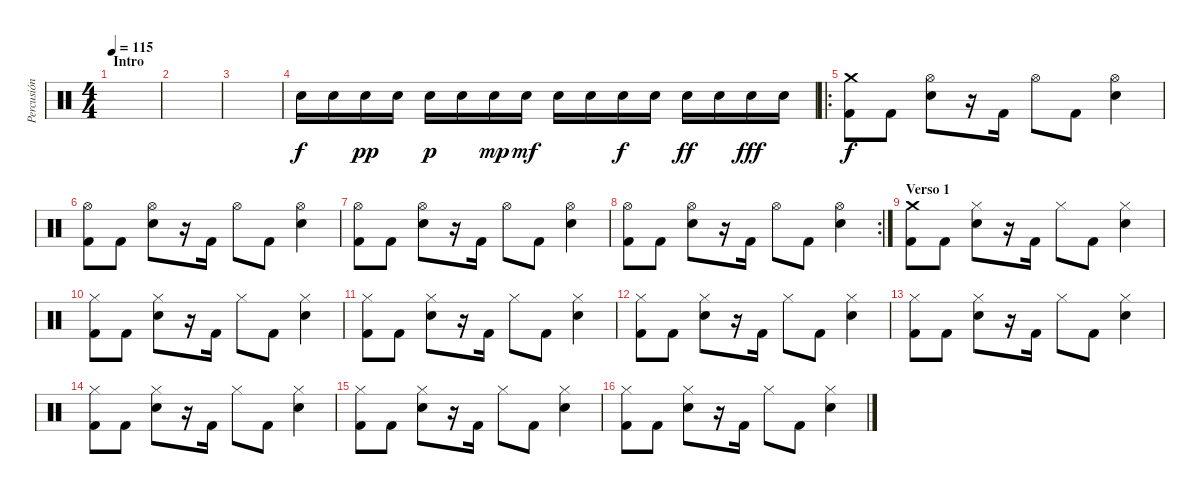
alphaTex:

\track ("Percusión" "Percusión") {instrument percussion}
\staff {score}
\articulation defaults
\ts (4 4)
\section ("" "Intro")
\tempo 115
\clef neutral
\ks c
|
|
|
"Electric Snare (hit)".16 "Electric Snare (hit)".16 "Electric Snare (hit)".16{dy pp} "Electric Snare (hit)".16 "Electric Snare (hit)".16{dy p} "Electric Snare (hit)".16 "Electric Snare (hit)".16{dy mp} "Electric Snare (hit)".16{dy mf} "Electric Snare (hit)".16 "Electric Snare (hit)".16 "Electric Snare (hit)".16{dy f} "Electric Snare (hit)".16 "Electric Snare (hit)".16{dy ff} "Electric Snare (hit)".16 "Electric Snare (hit)".16{dy fff} "Electric Snare (hit)".16 |
\ro
("Kick (hit) 2" "Crash medium (hit)").8{dy f} "Kick (hit) 2".8 ("Electric Snare (hit)" "Hi-Hat (open)").8 r.16 "Kick (hit) 2".16 "Hi-Hat (open)".8 "Kick (hit) 2".8 ("Electric Snare (hit)" "Hi-Hat (open)").4 |
("Kick (hit) 2" "Hi-Hat (open)").8 "Kick (hit) 2".8 ("Electric Snare (hit)" "Hi-Hat (open)").8 r.16 "Kick (hit) 2".16 "Hi-Hat (open)".8 "Kick (hit) 2".8 ("Electric Snare (hit)" "Hi-Hat (open)").4 |
("Kick (hit) 2" "Hi-Hat (open)").8 "Kick (hit) 2".8 ("Electric Snare (hit)" "Hi-Hat (open)").8 r.16 "Kick (hit) 2".16 "Hi-Hat (open)".8 "Kick (hit) 2".8 ("Electric Snare (hit)" "Hi-Hat (open)").4 |
\rc 2
("Kick (hit) 2" "Hi-Hat (open)").8 "Kick (hit) 2".8 ("Electric Snare (hit)" "Hi-Hat (open)").8 r.16 "Kick (hit) 2".16 "Hi-Hat (open)".8 "Kick (hit) 2".8 ("Electric Snare (hit)" "Hi-Hat (open)").4 |
\section ("" "Verso 1")
("Kick (hit) 2" "Crash medium (hit)").8 "Kick (hit) 2".8 ("Electric Snare (hit)" "Hi-Hat (closed)").8 r.16 "Kick (hit) 2".16 "Hi-Hat (closed)".8 "Kick (hit) 2".8 ("Electric Snare (hit)" "Hi-Hat (closed)").4 |
("Kick (hit) 2" "Hi-Hat (closed)").8 "Kick (hit) 2".8 ("Electric Snare (hit)" "Hi-Hat (closed)").8 r.16 "Kick (hit) 2".16 "Hi-Hat (closed)".8 "Kick (hit) 2".8 ("Electric Snare (hit)" "Hi-Hat (closed)").4 |
("Kick (hit) 2" "Hi-Hat (closed)").8 "Kick (hit) 2".8 ("Electric Snare (hit)" "Hi-Hat (closed)").8 r.16 "Kick (hit) 2".16 "Hi-Hat (closed)".8 "Kick (hit) 2".8 ("Electric Snare (hit)" "Hi-Hat (closed)").4 |
("Kick (hit) 2" "Hi-Hat (closed)").8 "Kick (hit) 2".8 ("Electric Snare (hit)" "Hi-Hat (closed)").8 r.16 "Kick (hit) 2".16 "Hi-Hat (closed)".8 "Kick (hit) 2".8 ("Electric Snare (hit)" "Hi-Hat (closed)").4 |
("Kick (hit) 2" "Hi-Hat (closed)").8 "Kick (hit) 2".8 ("Electric Snare (hit)" "Hi-Hat (closed)").8 r.16 "Kick (hit) 2".16 "Hi-Hat (closed)".8 "Kick (hit) 2".8 ("Electric Snare (hit)" "Hi-Hat (closed)").4 |
("Kick (hit) 2" "Hi-Hat (closed)").8 "Kick (hit) 2".8 ("Electric Snare (hit)" "Hi-Hat (closed)").8 r.16 "Kick (hit) 2".16 "Hi-Hat (closed)".8 "Kick (hit) 2".8 ("Electric Snare (hit)" "Hi-Hat (closed)").4 |
("Kick (hit) 2" "Hi-Hat (closed)").8 "Kick (hit) 2".8 ("Electric Snare (hit)" "Hi-Hat (closed)").8 r.16 "Kick (hit) 2".16 "Hi-Hat (closed)".8 "Kick (hit) 2".8 ("Electric Snare (hit)" "Hi-Hat (closed)").4 |
("Kick (hit) 2" "Hi-Hat (closed)").8 "Kick (hit) 2".8 ("Electric Snare (hit)" "Hi-Hat (closed)").8 r.16 "Kick (hit) 2".16 "Hi-Hat (closed)".8 "Kick (hit) 2".8 ("Electric Snare (hit)" "Hi-Hat (closed)").4
